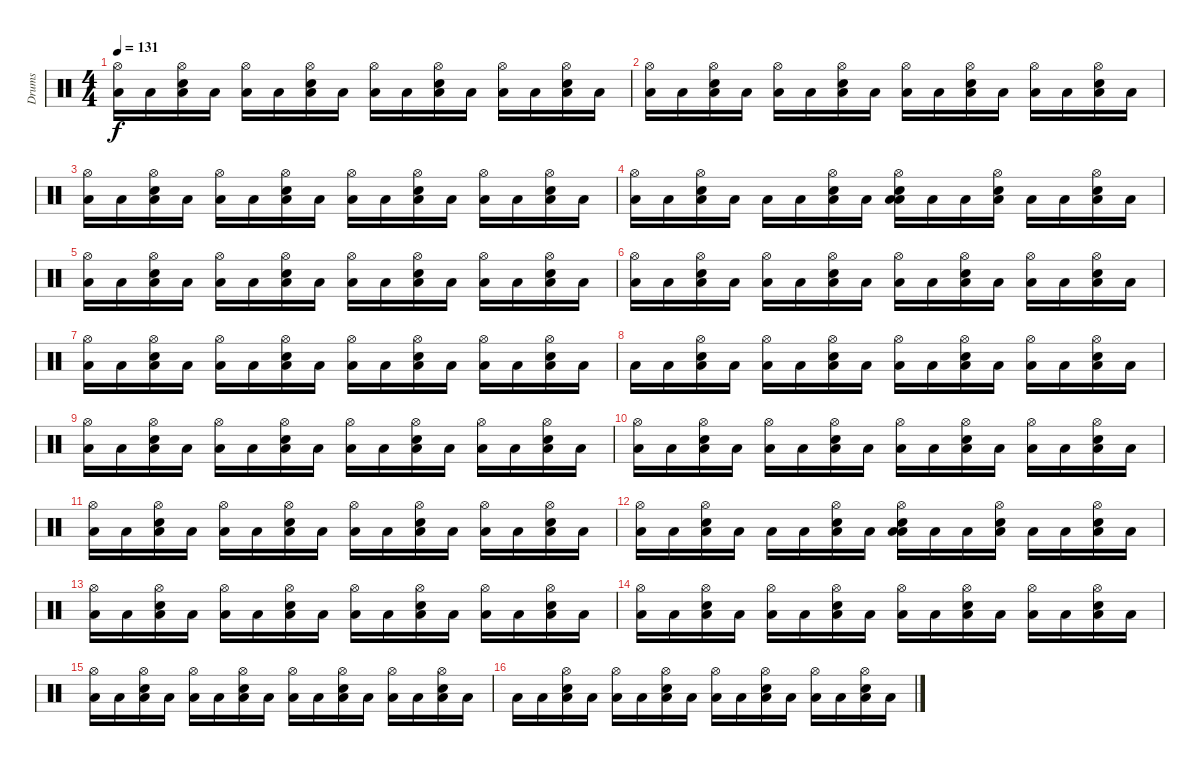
\track ("Drums" "Drums") {instrument percussion}
\staff {score}
\articulation defaults
\ts (4 4)
\tempo 131
\clef neutral
\ks c
("Low Tom (hit)" "Hi-Hat (open)").16{dy f} "Low Tom (hit)".16 ("Electric Snare (hit)" "Low Tom (hit)" "Hi-Hat (open)").16 "Low Tom (hit)".16 ("Low Tom (hit)" "Hi-Hat (open)").16 "Low Tom (hit)".16 ("Electric Snare (hit)" "Low Tom (hit)" "Hi-Hat (open)").16 "Low Tom (hit)".16 ("Low Tom (hit)" "Hi-Hat (open)").16 "Low Tom (hit)".16 ("Electric Snare (hit)" "Low Tom (hit)" "Hi-Hat (open)").16 "Low Tom (hit)".16 ("Low Tom (hit)" "Hi-Hat (open)").16 "Low Tom (hit)".16 ("Electric Snare (hit)" "Low Tom (hit)" "Hi-Hat (open)").16 "Low Tom (hit)".16 |
("Low Tom (hit)" "Hi-Hat (open)").16 "Low Tom (hit)".16 ("Electric Snare (hit)" "Low Tom (hit)" "Hi-Hat (open)").16 "Low Tom (hit)".16 ("Low Tom (hit)" "Hi-Hat (open)").16 "Low Tom (hit)".16 ("Electric Snare (hit)" "Low Tom (hit)" "Hi-Hat (open)").16 "Low Tom (hit)".16 ("Low Tom (hit)" "Hi-Hat (open)").16 "Low Tom (hit)".16 ("Electric Snare (hit)" "Low Tom (hit)" "Hi-Hat (open)").16 "Low Tom (hit)".16 ("Low Tom (hit)" "Hi-Hat (open)").16 "Low Tom (hit)".16 ("Electric Snare (hit)" "Low Tom (hit)" "Hi-Hat (open)").16 "Low Tom (hit)".16 |
("Hi-Hat (open)" "Low Tom (hit)").16 "Low Tom (hit)".16 ("Hi-Hat (open)" "Low Tom (hit)" "Electric Snare (hit)").16 "Low Tom (hit)".16 ("Hi-Hat (open)" "Low Tom (hit)").16 "Low Tom (hit)".16 ("Hi-Hat (open)" "Low Tom (hit)" "Electric Snare (hit)").16 "Low Tom (hit)".16 ("Hi-Hat (open)" "Low Tom (hit)").16 "Low Tom (hit)".16 ("Hi-Hat (open)" "Low Tom (hit)" "Electric Snare (hit)").16 "Low Tom (hit)".16 ("Hi-Hat (open)" "Low Tom (hit)").16 "Low Tom (hit)".16 ("Hi-Hat (open)" "Low Tom (hit)" "Electric Snare (hit)").16 "Low Tom (hit)".16 |
("Hi-Hat (open)" "Low Tom (hit)").16 "Low Tom (hit)".16 ("Hi-Hat (open)" "Electric Snare (hit)" "Low Tom (hit)").16 "Low Tom (hit)".16 "Low Tom (hit)".16 "Low Tom (hit)".16 ("Hi-Hat (open)" "Electric Snare (hit)" "Low Tom (hit)").16 "Low Tom (hit)".16 ("Hi-Hat (open)" "Low Tom (hit)" "Electric Snare (hit)" "Low Tom (hit)").16 "Low Tom (hit)".16 "Low Tom (hit)".16 ("Hi-Hat (open)" "Electric Snare (hit)" "Low Tom (hit)").16 "Low Tom (hit)".16 "Low Tom (hit)".16 ("Hi-Hat (open)" "Electric Snare (hit)" "Low Tom (hit)").16 "Low Tom (hit)".16 |
("Low Tom (hit)" "Hi-Hat (open)").16 "Low Tom (hit)".16 ("Electric Snare (hit)" "Low Tom (hit)" "Hi-Hat (open)").16 "Low Tom (hit)".16 ("Low Tom (hit)" "Hi-Hat (open)").16 "Low Tom (hit)".16 ("Electric Snare (hit)" "Low Tom (hit)" "Hi-Hat (open)").16 "Low Tom (hit)".16 ("Low Tom (hit)" "Hi-Hat (open)").16 "Low Tom (hit)".16 ("Electric Snare (hit)" "Low Tom (hit)" "Hi-Hat (open)").16 "Low Tom (hit)".16 ("Low Tom (hit)" "Hi-Hat (open)").16 "Low Tom (hit)".16 ("Electric Snare (hit)" "Low Tom (hit)" "Hi-Hat (open)").16 "Low Tom (hit)".16 |
("Low Tom (hit)" "Hi-Hat (open)").16 "Low Tom (hit)".16 ("Electric Snare (hit)" "Low Tom (hit)" "Hi-Hat (open)").16 "Low Tom (hit)".16 ("Low Tom (hit)" "Hi-Hat (open)").16 "Low Tom (hit)".16 ("Electric Snare (hit)" "Low Tom (hit)" "Hi-Hat (open)").16 "Low Tom (hit)".16 ("Low Tom (hit)" "Hi-Hat (open)").16 "Low Tom (hit)".16 ("Electric Snare (hit)" "Low Tom (hit)" "Hi-Hat (open)").16 "Low Tom (hit)".16 ("Low Tom (hit)" "Hi-Hat (open)").16 "Low Tom (hit)".16 ("Electric Snare (hit)" "Low Tom (hit)" "Hi-Hat (open)").16 "Low Tom (hit)".16 |
("Low Tom (hit)" "Hi-Hat (open)").16 "Low Tom (hit)".16 ("Electric Snare (hit)" "Low Tom (hit)" "Hi-Hat (open)").16 "Low Tom (hit)".16 ("Low Tom (hit)" "Hi-Hat (open)").16 "Low Tom (hit)".16 ("Electric Snare (hit)" "Low Tom (hit)" "Hi-Hat (open)").16 "Low Tom (hit)".16 ("Low Tom (hit)" "Hi-Hat (open)").16 "Low Tom (hit)".16 ("Electric Snare (hit)" "Low Tom (hit)" "Hi-Hat (open)").16 "Low Tom (hit)".16 ("Low Tom (hit)" "Hi-Hat (open)").16 "Low Tom (hit)".16 ("Electric Snare (hit)" "Low Tom (hit)" "Hi-Hat (open)").16 "Low Tom (hit)".16 |
"Low Tom (hit)".16 "Low Tom (hit)".16 ("Electric Snare (hit)" "Low Tom (hit)" "Hi-Hat (open)").16 "Low Tom (hit)".16 ("Low Tom (hit)" "Hi-Hat (open)").16 "Low Tom (hit)".16 ("Electric Snare (hit)" "Low Tom (hit)" "Hi-Hat (open)").16 "Low Tom (hit)".16 ("Low Tom (hit)" "Hi-Hat (open)").16 "Low Tom (hit)".16 ("Electric Snare (hit)" "Low Tom (hit)" "Hi-Hat (open)").16 "Low Tom (hit)".16 ("Low Tom (hit)" "Hi-Hat (open)").16 "Low Tom (hit)".16 ("Electric Snare (hit)" "Low Tom (hit)" "Hi-Hat (open)").16 "Low Tom (hit)".16 |
("Low Tom (hit)" "Hi-Hat (open)").16{volume 13} "Low Tom (hit)".16 ("Electric Snare (hit)" "Low Tom (hit)" "Hi-Hat (open)").16 "Low Tom (hit)".16 ("Low Tom (hit)" "Hi-Hat (open)").16 "Low Tom (hit)".16 ("Electric Snare (hit)" "Low Tom (hit)" "Hi-Hat (open)").16 "Low Tom (hit)".16 ("Low Tom (hit)" "Hi-Hat (open)").16 "Low Tom (hit)".16 ("Electric Snare (hit)" "Low Tom (hit)" "Hi-Hat (open)").16 "Low Tom (hit)".16 ("Low Tom (hit)" "Hi-Hat (open)").16 "Low Tom (hit)".16 ("Electric Snare (hit)" "Low Tom (hit)" "Hi-Hat (open)").16 "Low Tom (hit)".16 |
("Low Tom (hit)" "Hi-Hat (open)").16{volume 11} "Low Tom (hit)".16 ("Electric Snare (hit)" "Low Tom (hit)" "Hi-Hat (open)").16 "Low Tom (hit)".16 ("Low Tom (hit)" "Hi-Hat (open)").16 "Low Tom (hit)".16 ("Electric Snare (hit)" "Low Tom (hit)" "Hi-Hat (open)").16 "Low Tom (hit)".16 ("Low Tom (hit)" "Hi-Hat (open)").16 "Low Tom (hit)".16 ("Electric Snare (hit)" "Low Tom (hit)" "Hi-Hat (open)").16 "Low Tom (hit)".16 ("Low Tom (hit)" "Hi-Hat (open)").16 "Low Tom (hit)".16 ("Electric Snare (hit)" "Low Tom (hit)" "Hi-Hat (open)").16 "Low Tom (hit)".16 |
("Hi-Hat (open)" "Low Tom (hit)").16 "Low Tom (hit)".16 ("Hi-Hat (open)" "Low Tom (hit)" "Electric Snare (hit)").16 "Low Tom (hit)".16 ("Hi-Hat (open)" "Low Tom (hit)").16 "Low Tom (hit)".16 ("Hi-Hat (open)" "Low Tom (hit)" "Electric Snare (hit)").16 "Low Tom (hit)".16 ("Hi-Hat (open)" "Low Tom (hit)").16 "Low Tom (hit)".16 ("Hi-Hat (open)" "Low Tom (hit)" "Electric Snare (hit)").16 "Low Tom (hit)".16 ("Hi-Hat (open)" "Low Tom (hit)").16 "Low Tom (hit)".16 ("Hi-Hat (open)" "Low Tom (hit)" "Electric Snare (hit)").16 "Low Tom (hit)".16 |
("Hi-Hat (open)" "Low Tom (hit)").16{volume 9} "Low Tom (hit)".16 ("Hi-Hat (open)" "Electric Snare (hit)" "Low Tom (hit)").16 "Low Tom (hit)".16 "Low Tom (hit)".16 "Low Tom (hit)".16 ("Hi-Hat (open)" "Electric Snare (hit)" "Low Tom (hit)").16 "Low Tom (hit)".16 ("Hi-Hat (open)" "Low Tom (hit)" "Electric Snare (hit)" "Low Tom (hit)").16 "Low Tom (hit)".16 "Low Tom (hit)".16 ("Hi-Hat (open)" "Electric Snare (hit)" "Low Tom (hit)").16 "Low Tom (hit)".16 "Low Tom (hit)".16 ("Hi-Hat (open)" "Electric Snare (hit)" "Low Tom (hit)").16 "Low Tom (hit)".16 |
("Low Tom (hit)" "Hi-Hat (open)").16{volume 8} "Low Tom (hit)".16 ("Electric Snare (hit)" "Low Tom (hit)" "Hi-Hat (open)").16 "Low Tom (hit)".16 ("Low Tom (hit)" "Hi-Hat (open)").16 "Low Tom (hit)".16 ("Electric Snare (hit)" "Low Tom (hit)" "Hi-Hat (open)").16 "Low Tom (hit)".16 ("Low Tom (hit)" "Hi-Hat (open)").16 "Low Tom (hit)".16 ("Electric Snare (hit)" "Low Tom (hit)" "Hi-Hat (open)").16 "Low Tom (hit)".16 ("Low Tom (hit)" "Hi-Hat (open)").16 "Low Tom (hit)".16 ("Electric Snare (hit)" "Low Tom (hit)" "Hi-Hat (open)").16 "Low Tom (hit)".16 |
("Low Tom (hit)" "Hi-Hat (open)").16 "Low Tom (hit)".16 ("Electric Snare (hit)" "Low Tom (hit)" "Hi-Hat (open)").16 "Low Tom (hit)".16 ("Low Tom (hit)" "Hi-Hat (open)").16 "Low Tom (hit)".16 ("Electric Snare (hit)" "Low Tom (hit)" "Hi-Hat (open)").16 "Low Tom (hit)".16 ("Low Tom (hit)" "Hi-Hat (open)").16 "Low Tom (hit)".16 ("Electric Snare (hit)" "Low Tom (hit)" "Hi-Hat (open)").16 "Low Tom (hit)".16 ("Low Tom (hit)" "Hi-Hat (open)").16 "Low Tom (hit)".16 ("Electric Snare (hit)" "Low Tom (hit)" "Hi-Hat (open)").16 "Low Tom (hit)".16 |
("Low Tom (hit)" "Hi-Hat (open)").16{volume 7} "Low Tom (hit)".16 ("Electric Snare (hit)" "Low Tom (hit)" "Hi-Hat (open)").16 "Low Tom (hit)".16 ("Low Tom (hit)" "Hi-Hat (open)").16 "Low Tom (hit)".16 ("Electric Snare (hit)" "Low Tom (hit)" "Hi-Hat (open)").16 "Low Tom (hit)".16 ("Low Tom (hit)" "Hi-Hat (open)").16 "Low Tom (hit)".16 ("Electric Snare (hit)" "Low Tom (hit)" "Hi-Hat (open)").16 "Low Tom (hit)".16 ("Low Tom (hit)" "Hi-Hat (open)").16 "Low Tom (hit)".16 ("Electric Snare (hit)" "Low Tom (hit)" "Hi-Hat (open)").16 "Low Tom (hit)".16 |
"Low Tom (hit)".16{volume 5} "Low Tom (hit)".16 ("Electric Snare (hit)" "Low Tom (hit)" "Hi-Hat (open)").16 "Low Tom (hit)".16 ("Low Tom (hit)" "Hi-Hat (open)").16 "Low Tom (hit)".16 ("Electric Snare (hit)" "Low Tom (hit)" "Hi-Hat (open)").16 "Low Tom (hit)".16 ("Low Tom (hit)" "Hi-Hat (open)").16 "Low Tom (hit)".16 ("Electric Snare (hit)" "Low Tom (hit)" "Hi-Hat (open)").16 "Low Tom (hit)".16 ("Low Tom (hit)" "Hi-Hat (open)").16 "Low Tom (hit)".16 ("Electric Snare (hit)" "Low Tom (hit)" "Hi-Hat (open)").16 "Low Tom (hit)".16{volume 3}
